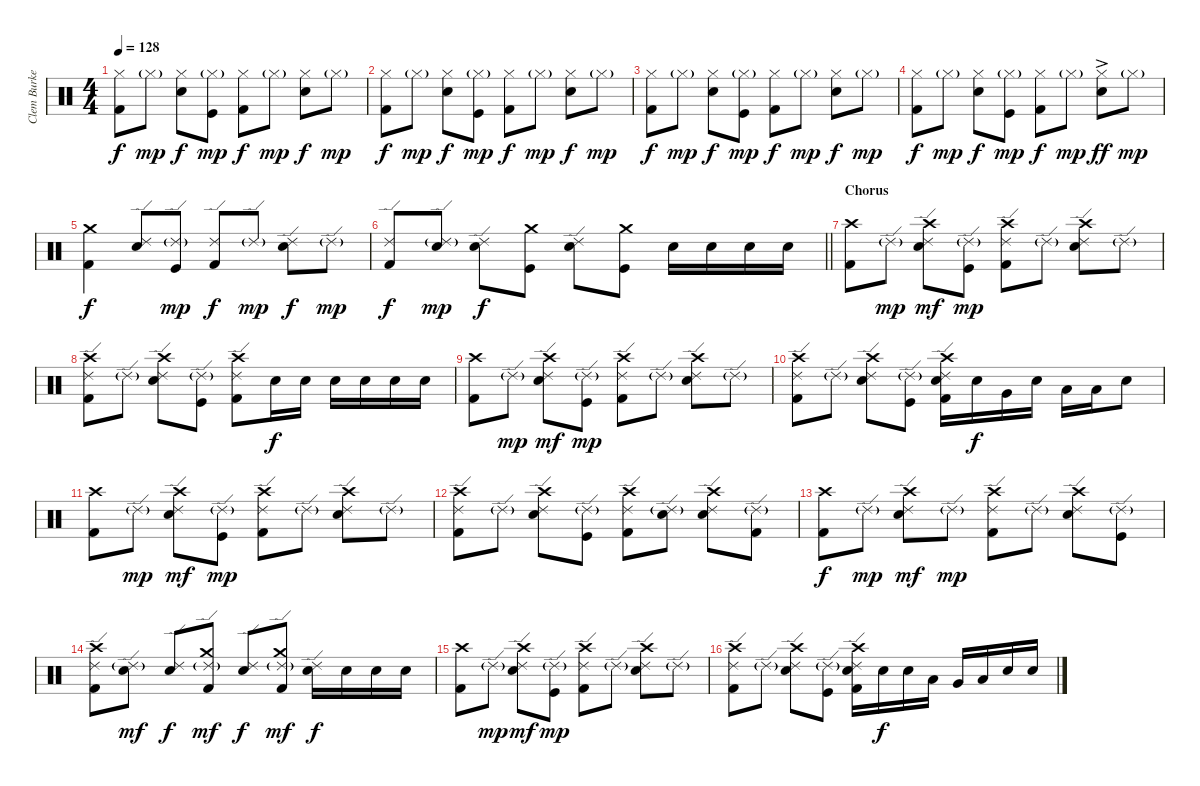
\track ("Clem Burke" "Clem Burke") {instrument percussion}
\staff {score}
\articulation defaults
\ts (4 4)
\tempo 128
\clef neutral
\ks c
("Hi-Hat (closed)" "Kick (hit) 2").8{dy f} "Hi-Hat (closed)"{g}.8{dy mp} ("Hi-Hat (closed)" "Electric Snare (hit)").8{dy f} ("Hi-Hat (closed)"{g} "Kick (hit)").8{dy mp} ("Hi-Hat (closed)" "Kick (hit) 2").8{dy f} "Hi-Hat (closed)"{g}.8{dy mp} ("Hi-Hat (closed)" "Electric Snare (hit)").8{dy f} "Hi-Hat (closed)"{g}.8{dy mp} |
("Hi-Hat (closed)" "Kick (hit) 2").8{dy f} "Hi-Hat (closed)"{g}.8{dy mp} ("Hi-Hat (closed)" "Electric Snare (hit)").8{dy f} ("Hi-Hat (closed)"{g} "Kick (hit)").8{dy mp} ("Hi-Hat (closed)" "Kick (hit) 2").8{dy f} "Hi-Hat (closed)"{g}.8{dy mp} ("Hi-Hat (closed)" "Electric Snare (hit)").8{dy f} "Hi-Hat (closed)"{g}.8{dy mp} |
("Hi-Hat (closed)" "Kick (hit) 2").8{dy f} "Hi-Hat (closed)"{g}.8{dy mp} ("Hi-Hat (closed)" "Electric Snare (hit)").8{dy f} ("Hi-Hat (closed)"{g} "Kick (hit)").8{dy mp} ("Hi-Hat (closed)" "Kick (hit) 2").8{dy f} "Hi-Hat (closed)"{g}.8{dy mp} ("Hi-Hat (closed)" "Electric Snare (hit)").8{dy f} "Hi-Hat (closed)"{g}.8{dy mp} |
("Hi-Hat (closed)" "Kick (hit) 2").8{dy f} "Hi-Hat (closed)"{g}.8{dy mp} ("Hi-Hat (closed)" "Electric Snare (hit)").8{dy f} ("Hi-Hat (closed)"{g} "Kick (hit)").8{dy mp} ("Hi-Hat (closed)" "Kick (hit) 2").8{dy f} "Hi-Hat (closed)"{g}.8{dy mp} ("Hi-Hat (closed)"{ac} "Electric Snare (hit)").8{dy ff} "Hi-Hat (closed)"{g}.8{dy mp} |
("Crash medium (hit)" "Kick (hit) 2").4{dy f} ("Ride (edge) 2" "Electric Snare (hit)").8 ("Ride (edge) 2"{g} "Kick (hit)").8{dy mp} ("Ride (edge) 2" "Kick (hit) 2").8{dy f} "Ride (edge) 2"{g}.8{dy mp} ("Ride (edge) 2" "Electric Snare (hit)").8{dy f} "Ride (edge) 2"{g}.8{dy mp} |
\barLineRight lightlight
("Ride (edge) 2" "Kick (hit) 2").8{dy f} ("Ride (edge) 2"{g} "Electric Snare (hit)").8{dy mp} ("Ride (edge) 2" "Electric Snare (hit)").8{dy f} ("Crash medium (hit)" "Kick (hit)").8 ("Ride (edge) 2" "Electric Snare (hit)").8 ("Crash medium (hit)" "Kick (hit)").8 "Electric Snare (hit)".16 "Electric Snare (hit)".16 "Electric Snare (hit)".16 "Electric Snare (hit)".16 |
\section ("" "Chorus")
("Crash high (hit)" "Kick (hit) 2").8 "Ride (edge) 2"{g}.8{dy mp} ("Ride (edge) 2" "Crash high (hit)" "Electric Snare (hit)").8{dy mf} ("Ride (edge) 2"{g} "Kick (hit)").8{dy mp} ("Ride (edge) 2" "Crash high (hit)" "Kick (hit) 2").8 "Ride (edge) 2"{g}.8 ("Ride (edge) 2" "Crash high (hit)" "Electric Snare (hit)").8 "Ride (edge) 2"{g}.8 |
("Crash high (hit)" "Ride (edge) 2" "Kick (hit) 2").8 "Ride (edge) 2"{g}.8 ("Ride (edge) 2" "Crash high (hit)" "Electric Snare (hit)").8 ("Ride (edge) 2"{g} "Kick (hit)").8 ("Ride (edge) 2" "Crash high (hit)" "Kick (hit) 2").8 "Electric Snare (hit)".16{dy f} "Electric Snare (hit)".16 "Electric Snare (hit)".16 "Electric Snare (hit)".16 "Electric Snare (hit)".16 "Electric Snare (hit)".16 |
("Crash high (hit)" "Kick (hit) 2").8 "Ride (edge) 2"{g}.8{dy mp} ("Ride (edge) 2" "Crash high (hit)" "Electric Snare (hit)").8{dy mf} ("Ride (edge) 2"{g} "Kick (hit)").8{dy mp} ("Ride (edge) 2" "Crash high (hit)" "Kick (hit) 2").8 "Ride (edge) 2"{g}.8 ("Ride (edge) 2" "Crash high (hit)" "Electric Snare (hit)").8 "Ride (edge) 2"{g}.8 |
("Crash high (hit)" "Ride (edge) 2" "Kick (hit) 2").8 "Ride (edge) 2"{g}.8 ("Ride (edge) 2" "Crash high (hit)" "Electric Snare (hit)").8 ("Ride (edge) 2"{g} "Kick (hit)").8 ("Ride (edge) 2" "Crash high (hit)" "Electric Snare (hit)" "Kick (hit) 2").16 "Electric Snare (hit)".16{dy f} "Very Low Tom (hit)".16 "Electric Snare (hit)".16 "Low Floor Tom (hit)".16 "Low Floor Tom (hit)".16 "Electric Snare (hit)".8 |
("Crash high (hit)" "Kick (hit) 2").8 "Ride (edge) 2"{g}.8{dy mp} ("Ride (edge) 2" "Crash high (hit)" "Electric Snare (hit)").8{dy mf} ("Ride (edge) 2"{g} "Kick (hit)").8{dy mp} ("Ride (edge) 2" "Crash high (hit)" "Kick (hit) 2").8 "Ride (edge) 2"{g}.8 ("Ride (edge) 2" "Crash high (hit)" "Electric Snare (hit)").8 "Ride (edge) 2"{g}.8 |
("Crash high (hit)" "Ride (edge) 2" "Kick (hit) 2").8 "Ride (edge) 2"{g}.8 ("Ride (edge) 2" "Crash high (hit)" "Electric Snare (hit)").8 ("Ride (edge) 2"{g} "Kick (hit)").8 ("Ride (edge) 2" "Crash high (hit)" "Kick (hit) 2").8 ("Ride (edge) 2"{g} "Electric Snare (hit)").8 ("Ride (edge) 2" "Crash high (hit)" "Electric Snare (hit)").8 ("Ride (edge) 2"{g} "Kick (hit) 2").8 |
("Crash high (hit)" "Kick (hit) 2").8{dy f} "Ride (edge) 2"{g}.8{dy mp} ("Ride (edge) 2" "Crash high (hit)" "Electric Snare (hit)").8{dy mf} "Ride (edge) 2"{g}.8{dy mp} ("Ride (edge) 2" "Crash high (hit)" "Kick (hit) 2").8 "Ride (edge) 2"{g}.8 ("Ride (edge) 2" "Crash high (hit)" "Electric Snare (hit)").8 ("Ride (edge) 2"{g} "Kick (hit)").8 |
("Crash high (hit)" "Ride (edge) 2" "Kick (hit) 2").8 ("Ride (edge) 2"{g} "Electric Snare (hit)").8{dy mf} ("Ride (edge) 2" "Electric Snare (hit)").8{dy f} ("Ride (edge) 2"{g} "Crash medium (hit)" "Kick (hit) 2").8{dy mf} ("Ride (edge) 2" "Electric Snare (hit)").8{dy f} ("Ride (edge) 2"{g} "Crash medium (hit)" "Kick (hit) 2").8{dy mf} ("Ride (edge) 2" "Electric Snare (hit)").16{dy f} "Electric Snare (hit)".16 "Electric Snare (hit)".16 "Electric Snare (hit)".16 |
("Crash high (hit)" "Kick (hit) 2").8 "Ride (edge) 2"{g}.8{dy mp} ("Ride (edge) 2" "Crash high (hit)" "Electric Snare (hit)").8{dy mf} ("Ride (edge) 2"{g} "Kick (hit)").8{dy mp} ("Ride (edge) 2" "Crash high (hit)" "Kick (hit) 2").8 "Ride (edge) 2"{g}.8 ("Ride (edge) 2" "Crash high (hit)" "Electric Snare (hit)").8 "Ride (edge) 2"{g}.8 |
("Crash high (hit)" "Ride (edge) 2" "Kick (hit) 2").8 "Ride (edge) 2"{g}.8 ("Ride (edge) 2" "Crash high (hit)" "Electric Snare (hit)").8 ("Ride (edge) 2"{g} "Kick (hit)").8 ("Ride (edge) 2" "Crash high (hit)" "Electric Snare (hit)" "Kick (hit) 2").16 "Electric Snare (hit)".16{dy f} "Electric Snare (hit)".16 "Low Tom (hit)".16 "Very Low Tom (hit)".16 "Low Floor Tom (hit)".16 "Electric Snare (hit)".16 "Electric Snare (hit)".16
